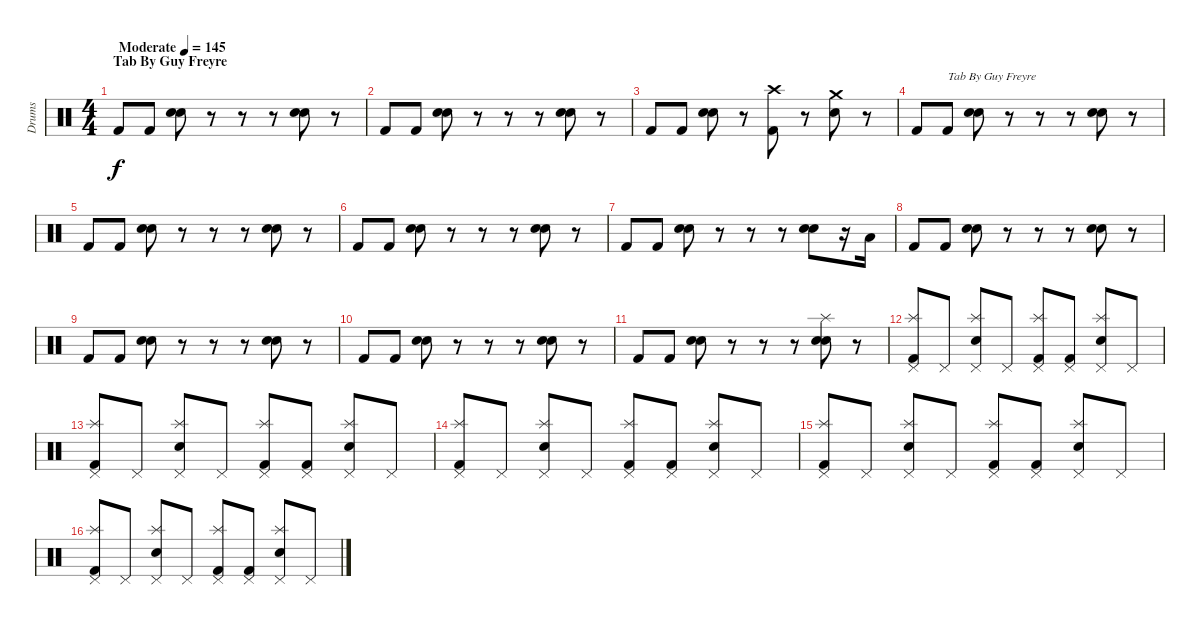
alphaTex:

\track ("Drums" "Drums") {instrument percussion}
\staff {score}
\articulation defaults
\ts (4 4)
\section ("" "Tab By Guy Freyre")
\tempo (145 "Moderate")
\clef neutral
\ks c "Kick (hit) 2".8{dy f} "Kick (hit) 2".8
("Electric Snare (hit)" "Electric Snare (hit)").8{bd 60} r.8 r.8 r.8 ("Electric Snare (hit)" "Electric Snare (hit)").8{bd 60} r.8 |
"Kick (hit) 2".8 "Kick (hit) 2".8 ("Electric Snare (hit)" "Electric Snare (hit)").8{bd 60} r.8 r.8 r.8 ("Electric Snare (hit)" "Electric Snare (hit)").8{bd 60} r.8 |
"Kick (hit) 2".8 "Kick (hit) 2".8 ("Electric Snare (hit)" "Electric Snare (hit)").8{bd 60} r.8 ("Crash high (hit)" "Kick (hit) 2").8 r.8 ("Crash medium (hit)" "Electric Snare (hit)").8 r.8 |
"Kick (hit) 2".8 "Kick (hit) 2".8{txt "Tab By Guy Freyre"} ("Electric Snare (hit)" "Electric Snare (hit)").8{bd 60} r.8 r.8 r.8 ("Electric Snare (hit)" "Electric Snare (hit)").8{bd 60} r.8 |
"Kick (hit) 2".8 "Kick (hit) 2".8 ("Electric Snare (hit)" "Electric Snare (hit)").8{bd 60} r.8 r.8 r.8 ("Electric Snare (hit)" "Electric Snare (hit)").8{bd 60} r.8 |
"Kick (hit) 2".8 "Kick (hit) 2".8 ("Electric Snare (hit)" "Electric Snare (hit)").8{bd 60} r.8 r.8 r.8 ("Electric Snare (hit)" "Electric Snare (hit)").8{bd 60} r.8 |
"Kick (hit) 2".8 "Kick (hit) 2".8 ("Electric Snare (hit)" "Electric Snare (hit)").8{bd 60} r.8 r.8 r.8 ("Electric Snare (hit)" "Electric Snare (hit)").8{bd 60} r.16 "Low Tom (hit)".16 |
"Kick (hit) 2".8 "Kick (hit) 2".8 ("Electric Snare (hit)" "Electric Snare (hit)").8{bd 60} r.8 r.8 r.8 ("Electric Snare (hit)" "Electric Snare (hit)").8{bd 60} r.8 |
"Kick (hit) 2".8 "Kick (hit) 2".8 ("Electric Snare (hit)" "Electric Snare (hit)").8{bd 60} r.8 r.8 r.8 ("Electric Snare (hit)" "Electric Snare (hit)").8{bd 60} r.8 |
"Kick (hit) 2".8 "Kick (hit) 2".8 ("Electric Snare (hit)" "Electric Snare (hit)").8{bd 60} r.8 r.8 r.8 ("Electric Snare (hit)" "Electric Snare (hit)").8{bd 60} r.8 |
"Kick (hit) 2".8 "Kick (hit) 2".8 ("Electric Snare (hit)" "Electric Snare (hit)").8{bd 60} r.8 r.8 r.8 ("Splash (hit)" "Electric Snare (hit)" "Electric Snare (hit)").8{bd 60} r.8 |
("Splash (hit)" "Pedal Hi-Hat (hit)" "Kick (hit) 2").8 "Pedal Hi-Hat (hit)".8 ("Splash (hit)" "Pedal Hi-Hat (hit)" "Electric Snare (hit)").8 "Pedal Hi-Hat (hit)".8 ("Splash (hit)" "Pedal Hi-Hat (hit)" "Kick (hit) 2").8 ("Pedal Hi-Hat (hit)" "Kick (hit) 2").8 ("Splash (hit)" "Pedal Hi-Hat (hit)" "Electric Snare (hit)").8 "Pedal Hi-Hat (hit)".8 |
("Splash (hit)" "Pedal Hi-Hat (hit)" "Kick (hit) 2").8 "Pedal Hi-Hat (hit)".8 ("Splash (hit)" "Pedal Hi-Hat (hit)" "Electric Snare (hit)").8 "Pedal Hi-Hat (hit)".8 ("Splash (hit)" "Pedal Hi-Hat (hit)" "Kick (hit) 2").8 ("Pedal Hi-Hat (hit)" "Kick (hit) 2").8 ("Splash (hit)" "Pedal Hi-Hat (hit)" "Electric Snare (hit)").8 "Pedal Hi-Hat (hit)".8 |
("Splash (hit)" "Pedal Hi-Hat (hit)" "Kick (hit) 2").8 "Pedal Hi-Hat (hit)".8 ("Splash (hit)" "Pedal Hi-Hat (hit)" "Electric Snare (hit)").8 "Pedal Hi-Hat (hit)".8 ("Splash (hit)" "Pedal Hi-Hat (hit)" "Kick (hit) 2").8 ("Pedal Hi-Hat (hit)" "Kick (hit) 2").8 ("Splash (hit)" "Pedal Hi-Hat (hit)" "Electric Snare (hit)").8 "Pedal Hi-Hat (hit)".8 |
("Splash (hit)" "Pedal Hi-Hat (hit)" "Kick (hit) 2").8 "Pedal Hi-Hat (hit)".8 ("Splash (hit)" "Pedal Hi-Hat (hit)" "Electric Snare (hit)").8 "Pedal Hi-Hat (hit)".8 ("Splash (hit)" "Pedal Hi-Hat (hit)" "Kick (hit) 2").8 ("Pedal Hi-Hat (hit)" "Kick (hit) 2").8 ("Splash (hit)" "Pedal Hi-Hat (hit)" "Electric Snare (hit)").8 "Pedal Hi-Hat (hit)".8 |
("Splash (hit)" "Pedal Hi-Hat (hit)" "Kick (hit) 2").8 "Pedal Hi-Hat (hit)".8 ("Splash (hit)" "Pedal Hi-Hat (hit)" "Electric Snare (hit)").8 "Pedal Hi-Hat (hit)".8 ("Splash (hit)" "Pedal Hi-Hat (hit)" "Kick (hit) 2").8 ("Pedal Hi-Hat (hit)" "Kick (hit) 2").8 ("Splash (hit)" "Pedal Hi-Hat (hit)" "Electric Snare (hit)").8 "Pedal Hi-Hat (hit)".8
